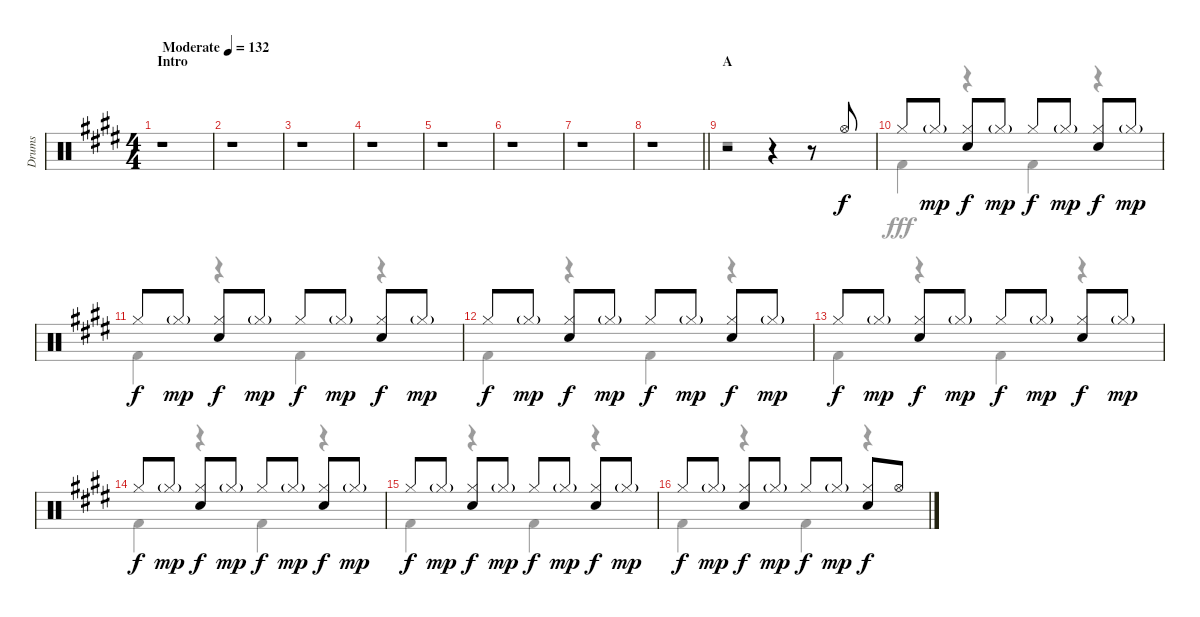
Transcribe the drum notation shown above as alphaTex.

\track ("Drums" "Drums") {instrument percussion}
\staff {score}
\articulation defaults
\voice
\ts (4 4)
\section ("" "Intro")
\tempo (132 "Moderate")
\clef neutral
\ks e
r.1{dy f} |
r.1 |
r.1 |
r.1 |
r.1 |
r.1 |
r.1 |
\barLineRight lightlight
r.1 |
\section ("" "A")
r.2 r.4 r.8 "Hi-Hat (open)".8 |
"Hi-Hat (closed)".8 "Hi-Hat (closed)"{g}.8{dy mp} ("Hi-Hat (closed)" "Snare (hit) 2").8{dy f} "Hi-Hat (closed)"{g}.8{dy mp} "Hi-Hat (closed)".8{dy f} "Hi-Hat (closed)"{g}.8{dy mp} ("Hi-Hat (closed)" "Snare (hit) 2").8{dy f} "Hi-Hat (closed)"{g}.8{dy mp} |
"Hi-Hat (closed)".8{dy f} "Hi-Hat (closed)"{g}.8{dy mp} ("Hi-Hat (closed)" "Snare (hit) 2").8{dy f} "Hi-Hat (closed)"{g}.8{dy mp} "Hi-Hat (closed)".8{dy f} "Hi-Hat (closed)"{g}.8{dy mp} ("Hi-Hat (closed)" "Snare (hit) 2").8{dy f} "Hi-Hat (closed)"{g}.8{dy mp} |
"Hi-Hat (closed)".8{dy f} "Hi-Hat (closed)"{g}.8{dy mp} ("Hi-Hat (closed)" "Snare (hit) 2").8{dy f} "Hi-Hat (closed)"{g}.8{dy mp} "Hi-Hat (closed)".8{dy f} "Hi-Hat (closed)"{g}.8{dy mp} ("Hi-Hat (closed)" "Snare (hit) 2").8{dy f} "Hi-Hat (closed)"{g}.8{dy mp} |
"Hi-Hat (closed)".8{dy f} "Hi-Hat (closed)"{g}.8{dy mp} ("Hi-Hat (closed)" "Snare (hit) 2").8{dy f} "Hi-Hat (closed)"{g}.8{dy mp} "Hi-Hat (closed)".8{dy f} "Hi-Hat (closed)"{g}.8{dy mp} ("Hi-Hat (closed)" "Snare (hit) 2").8{dy f} "Hi-Hat (closed)"{g}.8{dy mp} |
"Hi-Hat (closed)".8{dy f} "Hi-Hat (closed)"{g}.8{dy mp} ("Hi-Hat (closed)" "Snare (hit) 2").8{dy f} "Hi-Hat (closed)"{g}.8{dy mp} "Hi-Hat (closed)".8{dy f} "Hi-Hat (closed)"{g}.8{dy mp} ("Hi-Hat (closed)" "Snare (hit) 2").8{dy f} "Hi-Hat (closed)"{g}.8{dy mp} |
"Hi-Hat (closed)".8{dy f} "Hi-Hat (closed)"{g}.8{dy mp} ("Hi-Hat (closed)" "Snare (hit) 2").8{dy f} "Hi-Hat (closed)"{g}.8{dy mp} "Hi-Hat (closed)".8{dy f} "Hi-Hat (closed)"{g}.8{dy mp} ("Hi-Hat (closed)" "Snare (hit) 2").8{dy f} "Hi-Hat (closed)"{g}.8{dy mp} |
"Hi-Hat (closed)".8{dy f} "Hi-Hat (closed)"{g}.8{dy mp} ("Hi-Hat (closed)" "Snare (hit) 2").8{dy f} "Hi-Hat (closed)"{g}.8{dy mp} "Hi-Hat (closed)".8{dy f} "Hi-Hat (closed)"{g}.8{dy mp} ("Hi-Hat (closed)" "Snare (hit) 2").8{dy f} "Hi-Hat (open)".8
\voice
\clef neutral
\ottava regular
\simile none
\ks e
r.1{dy fff} |
r.1 |
r.1 |
r.1 |
r.1 |
r.1 |
r.1 |
\barLineRight lightlight
r.1 |
r.1 |
"Kick (hit) 2".4 r.4 "Kick (hit) 2".4 r.4 |
"Kick (hit) 2".4 r.4 "Kick (hit) 2".4 r.4 |
"Kick (hit) 2".4 r.4 "Kick (hit) 2".4 r.4 |
"Kick (hit) 2".4 r.4 "Kick (hit) 2".4 r.4 |
"Kick (hit) 2".4 r.4 "Kick (hit) 2".4 r.4 |
"Kick (hit) 2".4 r.4 "Kick (hit) 2".4 r.4 |
"Kick (hit) 2".4 r.4 "Kick (hit) 2".4 r.4
